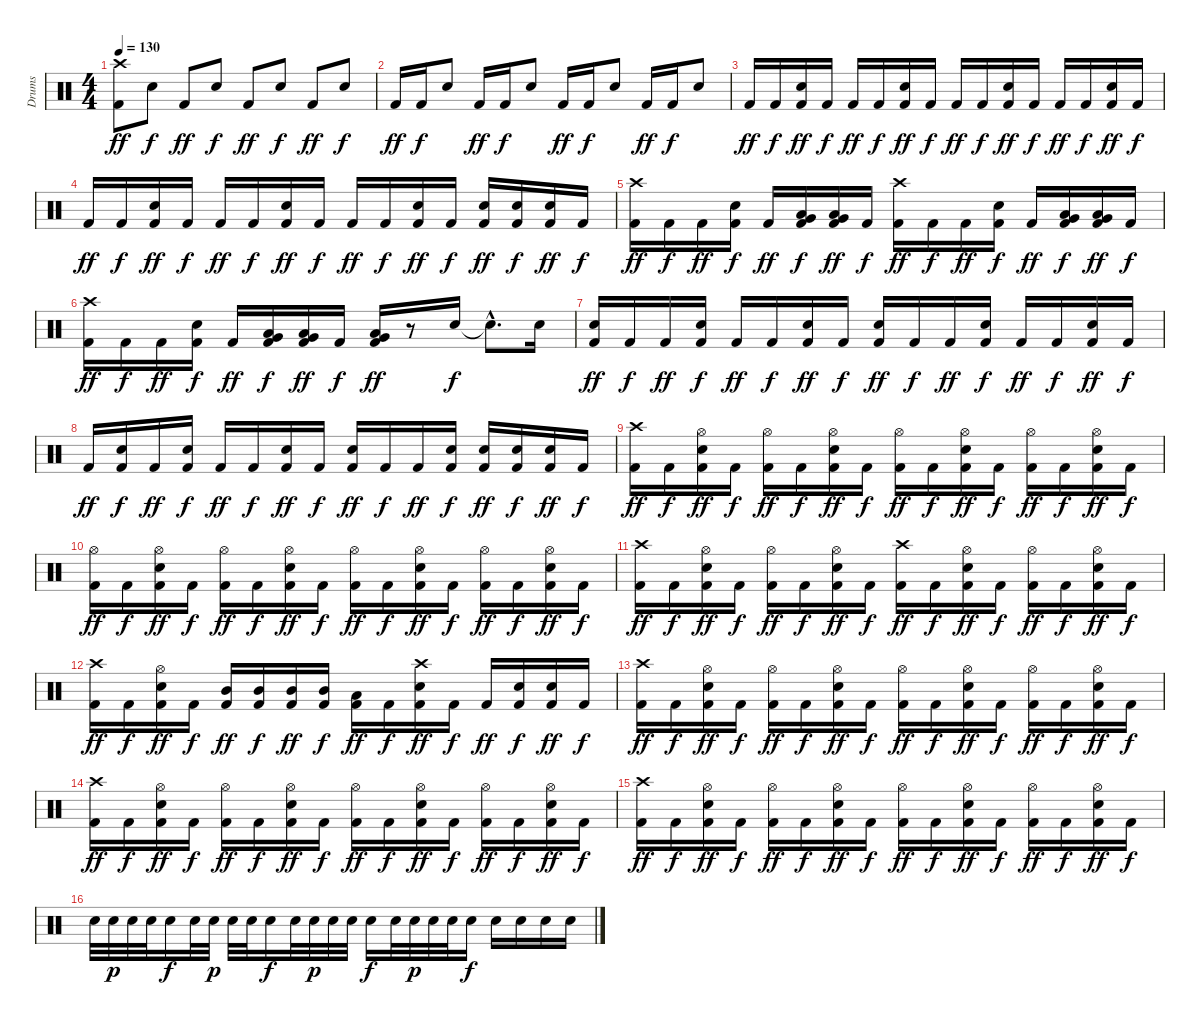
\track ("Drums" "Drums") {instrument percussion}
\staff {score}
\articulation defaults
\ts (4 4)
\tempo 130
\clef neutral
\ks c
("Crash high (hit)" "Kick (hit) 2").8{dy ff} "Electric Snare (hit)".8{dy f} "Kick (hit) 2".8{dy ff} "Electric Snare (hit)".8{dy f} "Kick (hit) 2".8{dy ff} "Electric Snare (hit)".8{dy f} "Kick (hit) 2".8{dy ff} "Electric Snare (hit)".8{dy f} |
"Kick (hit) 2".16{dy ff} "Kick (hit) 2".16{dy f} "Electric Snare (hit)".8 "Kick (hit) 2".16{dy ff} "Kick (hit) 2".16{dy f} "Electric Snare (hit)".8 "Kick (hit) 2".16{dy ff} "Kick (hit) 2".16{dy f} "Electric Snare (hit)".8 "Kick (hit) 2".16{dy ff} "Kick (hit) 2".16{dy f} "Electric Snare (hit)".8 |
"Kick (hit) 2".16{dy ff} "Kick (hit) 2".16{dy f} ("Electric Snare (hit)" "Kick (hit) 2").16{dy ff} "Kick (hit) 2".16{dy f} "Kick (hit) 2".16{dy ff} "Kick (hit) 2".16{dy f} ("Electric Snare (hit)" "Kick (hit) 2").16{dy ff} "Kick (hit) 2".16{dy f} "Kick (hit) 2".16{dy ff} "Kick (hit) 2".16{dy f} ("Electric Snare (hit)" "Kick (hit) 2").16{dy ff} "Kick (hit) 2".16{dy f} "Kick (hit) 2".16{dy ff} "Kick (hit) 2".16{dy f} ("Electric Snare (hit)" "Kick (hit) 2").16{dy ff} "Kick (hit) 2".16{dy f} |
"Kick (hit) 2".16{dy ff} "Kick (hit) 2".16{dy f} ("Electric Snare (hit)" "Kick (hit) 2").16{dy ff} "Kick (hit) 2".16{dy f} "Kick (hit) 2".16{dy ff} "Kick (hit) 2".16{dy f} ("Electric Snare (hit)" "Kick (hit) 2").16{dy ff} "Kick (hit) 2".16{dy f} "Kick (hit) 2".16{dy ff} "Kick (hit) 2".16{dy f} ("Electric Snare (hit)" "Kick (hit) 2").16{dy ff} "Kick (hit) 2".16{dy f} ("Electric Snare (hit)" "Kick (hit) 2").16{dy ff} ("Electric Snare (hit)" "Kick (hit) 2").16{dy f} ("Electric Snare (hit)" "Kick (hit) 2").16{dy ff} "Kick (hit) 2".16{dy f} |
("Crash high (hit)" "Kick (hit) 2").16{dy ff} "Kick (hit) 2".16{dy f} "Kick (hit) 2".16{dy ff} ("Electric Snare (hit)" "Kick (hit) 2").16{dy f} "Kick (hit) 2".16{dy ff} ("Low Floor Tom (hit)" "Very Low Tom (hit)" "Kick (hit) 2").16{dy f} ("Very Low Tom (hit)" "Low Floor Tom (hit)" "Kick (hit) 2").16{dy ff} "Kick (hit) 2".16{dy f} ("Crash high (hit)" "Kick (hit) 2").16{dy ff} "Kick (hit) 2".16{dy f} "Kick (hit) 2".16{dy ff} ("Electric Snare (hit)" "Kick (hit) 2").16{dy f} "Kick (hit) 2".16{dy ff} ("Very Low Tom (hit)" "Low Floor Tom (hit)" "Kick (hit) 2").16{dy f} ("Very Low Tom (hit)" "Low Floor Tom (hit)" "Kick (hit) 2").16{dy ff} "Kick (hit) 2".16{dy f} |
("Crash high (hit)" "Kick (hit) 2").16{dy ff} "Kick (hit) 2".16{dy f} "Kick (hit) 2".16{dy ff} ("Electric Snare (hit)" "Kick (hit) 2").16{dy f} "Kick (hit) 2".16{dy ff} ("Low Floor Tom (hit)" "Very Low Tom (hit)" "Kick (hit) 2").16{dy f} ("Very Low Tom (hit)" "Low Floor Tom (hit)" "Kick (hit) 2").16{dy ff} "Kick (hit) 2".16{dy f} ("Very Low Tom (hit)" "Low Floor Tom (hit)" "Kick (hit) 2").16{dy ff} r.8 "Electric Snare (hit)".16{dy f} "Snare (hit)"{hac t}.8{d} "Electric Snare (hit)".16 |
("Electric Snare (hit)" "Kick (hit) 2").16{dy ff} "Kick (hit) 2".16{dy f} "Kick (hit) 2".16{dy ff} ("Electric Snare (hit)" "Kick (hit) 2").16{dy f} "Kick (hit) 2".16{dy ff} "Kick (hit) 2".16{dy f} ("Electric Snare (hit)" "Kick (hit) 2").16{dy ff} "Kick (hit) 2".16{dy f} ("Electric Snare (hit)" "Kick (hit) 2").16{dy ff} "Kick (hit) 2".16{dy f} "Kick (hit) 2".16{dy ff} ("Electric Snare (hit)" "Kick (hit) 2").16{dy f} "Kick (hit) 2".16{dy ff} "Kick (hit) 2".16{dy f} ("Electric Snare (hit)" "Kick (hit) 2").16{dy ff} "Kick (hit) 2".16{dy f} |
"Kick (hit) 2".16{dy ff} ("Electric Snare (hit)" "Kick (hit) 2").16{dy f} "Kick (hit) 2".16{dy ff} ("Electric Snare (hit)" "Kick (hit) 2").16{dy f} "Kick (hit) 2".16{dy ff} "Kick (hit) 2".16{dy f} ("Electric Snare (hit)" "Kick (hit) 2").16{dy ff} "Kick (hit) 2".16{dy f} ("Electric Snare (hit)" "Kick (hit) 2").16{dy ff} "Kick (hit) 2".16{dy f} "Kick (hit) 2".16{dy ff} ("Electric Snare (hit)" "Kick (hit) 2").16{dy f} ("Electric Snare (hit)" "Kick (hit) 2").16{dy ff} ("Electric Snare (hit)" "Kick (hit) 2").16{dy f} ("Electric Snare (hit)" "Kick (hit) 2").16{dy ff} "Kick (hit) 2".16{dy f} |
("Crash high (hit)" "Kick (hit) 2").16{dy ff} "Kick (hit) 2".16{dy f} ("Hi-Hat (open)" "Electric Snare (hit)" "Kick (hit) 2").16{dy ff} "Kick (hit) 2".16{dy f} ("Hi-Hat (open)" "Kick (hit) 2").16{dy ff} "Kick (hit) 2".16{dy f} ("Hi-Hat (open)" "Electric Snare (hit)" "Kick (hit) 2").16{dy ff} "Kick (hit) 2".16{dy f} ("Hi-Hat (open)" "Kick (hit) 2").16{dy ff} "Kick (hit) 2".16{dy f} ("Hi-Hat (open)" "Electric Snare (hit)" "Kick (hit) 2").16{dy ff} "Kick (hit) 2".16{dy f} ("Hi-Hat (open)" "Kick (hit) 2").16{dy ff} "Kick (hit) 2".16{dy f} ("Hi-Hat (open)" "Electric Snare (hit)" "Kick (hit) 2").16{dy ff} "Kick (hit) 2".16{dy f} |
("Hi-Hat (open)" "Kick (hit) 2").16{dy ff} "Kick (hit) 2".16{dy f} ("Hi-Hat (open)" "Electric Snare (hit)" "Kick (hit) 2").16{dy ff} "Kick (hit) 2".16{dy f} ("Hi-Hat (open)" "Kick (hit) 2").16{dy ff} "Kick (hit) 2".16{dy f} ("Hi-Hat (open)" "Electric Snare (hit)" "Kick (hit) 2").16{dy ff} "Kick (hit) 2".16{dy f} ("Hi-Hat (open)" "Kick (hit) 2").16{dy ff} "Kick (hit) 2".16{dy f} ("Hi-Hat (open)" "Electric Snare (hit)" "Kick (hit) 2").16{dy ff} "Kick (hit) 2".16{dy f} ("Hi-Hat (open)" "Kick (hit) 2").16{dy ff} "Kick (hit) 2".16{dy f} ("Hi-Hat (open)" "Electric Snare (hit)" "Kick (hit) 2").16{dy ff} "Kick (hit) 2".16{dy f} |
("Crash high (hit)" "Kick (hit) 2").16{dy ff} "Kick (hit) 2".16{dy f} ("Hi-Hat (open)" "Electric Snare (hit)" "Kick (hit) 2").16{dy ff} "Kick (hit) 2".16{dy f} ("Hi-Hat (open)" "Kick (hit) 2").16{dy ff} "Kick (hit) 2".16{dy f} ("Hi-Hat (open)" "Electric Snare (hit)" "Kick (hit) 2").16{dy ff} "Kick (hit) 2".16{dy f} ("Crash high (hit)" "Kick (hit) 2").16{dy ff} "Kick (hit) 2".16{dy f} ("Hi-Hat (open)" "Electric Snare (hit)" "Kick (hit) 2").16{dy ff} "Kick (hit) 2".16{dy f} ("Hi-Hat (open)" "Kick (hit) 2").16{dy ff} "Kick (hit) 2".16{dy f} ("Hi-Hat (open)" "Electric Snare (hit)" "Kick (hit) 2").16{dy ff} "Kick (hit) 2".16{dy f} |
("Crash high (hit)" "Kick (hit) 2").16{dy ff} "Kick (hit) 2".16{dy f} ("Hi-Hat (open)" "Electric Snare (hit)" "Kick (hit) 2").16{dy ff} "Kick (hit) 2".16{dy f} ("Mid Tom (hit)" "Kick (hit) 2").16{dy ff} ("Mid Tom (hit)" "Kick (hit) 2").16{dy f} ("Mid Tom (hit)" "Kick (hit) 2").16{dy ff} ("Mid Tom (hit)" "Kick (hit) 2").16{dy f} ("Low Tom (hit)" "Kick (hit) 2").16{dy ff} "Kick (hit) 2".16{dy f} ("Crash high (hit)" "Electric Snare (hit)" "Kick (hit) 2").16{dy ff} "Kick (hit) 2".16{dy f} "Kick (hit) 2".16{dy ff} ("Electric Snare (hit)" "Kick (hit) 2").16{dy f} ("Electric Snare (hit)" "Kick (hit) 2").16{dy ff} "Kick (hit) 2".16{dy f} |
("Crash high (hit)" "Kick (hit) 2").16{dy ff} "Kick (hit) 2".16{dy f} ("Hi-Hat (open)" "Electric Snare (hit)" "Kick (hit) 2").16{dy ff} "Kick (hit) 2".16{dy f} ("Hi-Hat (open)" "Kick (hit) 2").16{dy ff} "Kick (hit) 2".16{dy f} ("Hi-Hat (open)" "Electric Snare (hit)" "Kick (hit) 2").16{dy ff} "Kick (hit) 2".16{dy f} ("Hi-Hat (open)" "Kick (hit) 2").16{dy ff} "Kick (hit) 2".16{dy f} ("Hi-Hat (open)" "Electric Snare (hit)" "Kick (hit) 2").16{dy ff} "Kick (hit) 2".16{dy f} ("Hi-Hat (open)" "Kick (hit) 2").16{dy ff} "Kick (hit) 2".16{dy f} ("Hi-Hat (open)" "Electric Snare (hit)" "Kick (hit) 2").16{dy ff} "Kick (hit) 2".16{dy f} |
("Crash high (hit)" "Kick (hit) 2").16{dy ff} "Kick (hit) 2".16{dy f} ("Hi-Hat (open)" "Electric Snare (hit)" "Kick (hit) 2").16{dy ff} "Kick (hit) 2".16{dy f} ("Hi-Hat (open)" "Kick (hit) 2").16{dy ff} "Kick (hit) 2".16{dy f} ("Hi-Hat (open)" "Electric Snare (hit)" "Kick (hit) 2").16{dy ff} "Kick (hit) 2".16{dy f} ("Hi-Hat (open)" "Kick (hit) 2").16{dy ff} "Kick (hit) 2".16{dy f} ("Hi-Hat (open)" "Electric Snare (hit)" "Kick (hit) 2").16{dy ff} "Kick (hit) 2".16{dy f} ("Hi-Hat (open)" "Kick (hit) 2").16{dy ff} "Kick (hit) 2".16{dy f} ("Hi-Hat (open)" "Electric Snare (hit)" "Kick (hit) 2").16{dy ff} "Kick (hit) 2".16{dy f} |
("Crash high (hit)" "Kick (hit) 2").16{dy ff} "Kick (hit) 2".16{dy f} ("Hi-Hat (open)" "Electric Snare (hit)" "Kick (hit) 2").16{dy ff} "Kick (hit) 2".16{dy f} ("Hi-Hat (open)" "Kick (hit) 2").16{dy ff} "Kick (hit) 2".16{dy f} ("Hi-Hat (open)" "Electric Snare (hit)" "Kick (hit) 2").16{dy ff} "Kick (hit) 2".16{dy f} ("Hi-Hat (open)" "Kick (hit) 2").16{dy ff} "Kick (hit) 2".16{dy f} ("Hi-Hat (open)" "Electric Snare (hit)" "Kick (hit) 2").16{dy ff} "Kick (hit) 2".16{dy f} ("Hi-Hat (open)" "Kick (hit) 2").16{dy ff} "Kick (hit) 2".16{dy f} ("Hi-Hat (open)" "Electric Snare (hit)" "Kick (hit) 2").16{dy ff} "Kick (hit) 2".16{dy f} |
"Electric Snare (hit)".32 "Electric Snare (hit)".32{dy p} "Electric Snare (hit)".32 "Electric Snare (hit)".32 "Electric Snare (hit)".16{dy f} "Electric Snare (hit)".32 "Electric Snare (hit)".32{dy p} "Electric Snare (hit)".32 "Electric Snare (hit)".32 "Electric Snare (hit)".16{dy f} "Electric Snare (hit)".32 "Electric Snare (hit)".32{dy p} "Electric Snare (hit)".32 "Electric Snare (hit)".32 "Electric Snare (hit)".16{dy f} "Electric Snare (hit)".32 "Electric Snare (hit)".32{dy p} "Electric Snare (hit)".32 "Electric Snare (hit)".32 "Electric Snare (hit)".16{dy f} "Electric Snare (hit)".16 "Electric Snare (hit)".16 "Electric Snare (hit)".16 "Electric Snare (hit)".16
